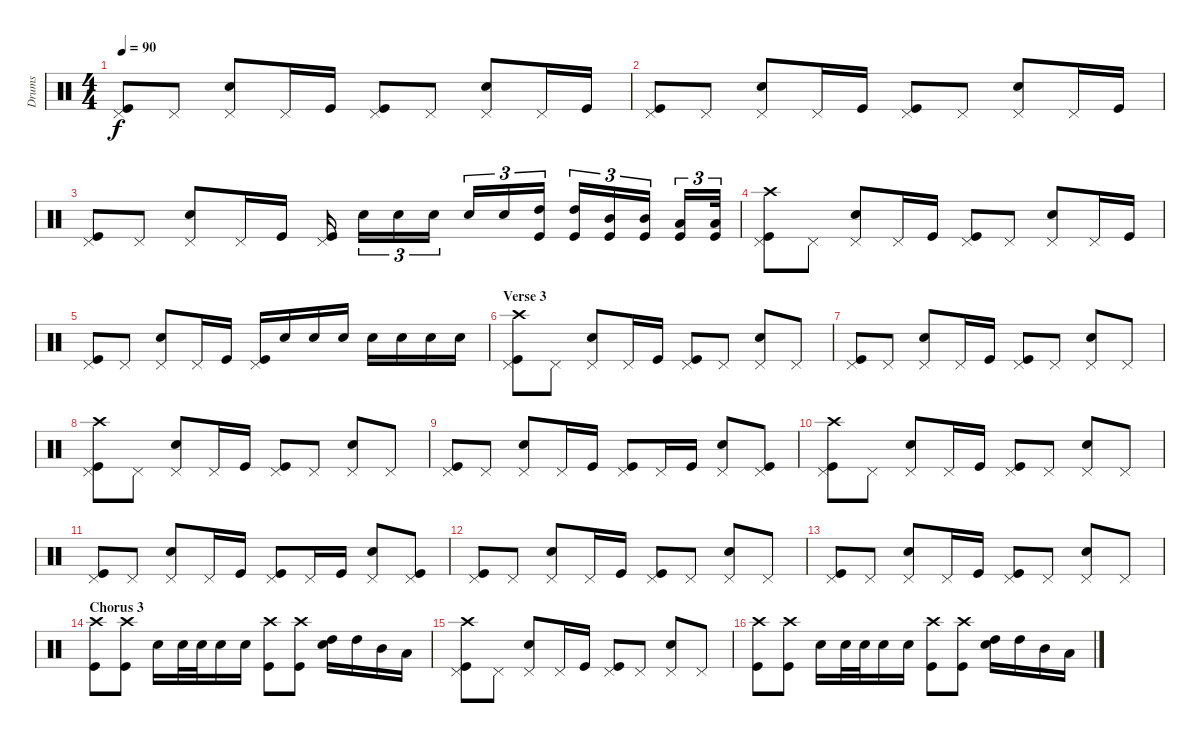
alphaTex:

\track ("Drums" "Drums") {instrument percussion}
\staff {score}
\articulation defaults
\ts (4 4)
\tempo 90
\clef neutral
\ks c
("Pedal Hi-Hat (hit)" "Kick (hit)").8{dy f} "Pedal Hi-Hat (hit)".8 ("Pedal Hi-Hat (hit)" "Snare (hit) 2").8 "Pedal Hi-Hat (hit)".16 "Kick (hit)".16 ("Pedal Hi-Hat (hit)" "Kick (hit)").8 "Pedal Hi-Hat (hit)".8 ("Pedal Hi-Hat (hit)" "Snare (hit) 2").8 "Pedal Hi-Hat (hit)".16 "Kick (hit)".16 |
("Pedal Hi-Hat (hit)" "Kick (hit)").8 "Pedal Hi-Hat (hit)".8 ("Pedal Hi-Hat (hit)" "Snare (hit) 2").8 "Pedal Hi-Hat (hit)".16 "Kick (hit)".16 ("Pedal Hi-Hat (hit)" "Kick (hit)").8 "Pedal Hi-Hat (hit)".8 ("Pedal Hi-Hat (hit)" "Snare (hit) 2").8 "Pedal Hi-Hat (hit)".16 "Kick (hit)".16 |
("Pedal Hi-Hat (hit)" "Kick (hit)").8 "Pedal Hi-Hat (hit)".8 ("Pedal Hi-Hat (hit)" "Snare (hit) 2").8 "Pedal Hi-Hat (hit)".16 "Kick (hit)".16 ("Pedal Hi-Hat (hit)" "Kick (hit)").16 "Snare (hit) 2".16{tu (3 2)} "Snare (hit) 2".16{tu (3 2)} "Snare (hit) 2".16{tu (3 2)} "Snare (hit) 2".16{tu (3 2)} "Snare (hit) 2".16{tu (3 2)} ("High Tom (hit)" "Kick (hit)").16{tu (3 2)} ("High Tom (hit)" "Kick (hit)").16{tu (3 2)} ("Mid Tom (hit)" "Kick (hit)").16{tu (3 2)} ("Mid Tom (hit)" "Kick (hit)").16{tu (3 2)} ("Low Tom (hit)" "Kick (hit)").16{tu (3 2)} ("Low Tom (hit)" "Kick (hit)").32{tu (3 2)} |
("Pedal Hi-Hat (hit)" "Kick (hit)" "Crash high (hit)").8 "Pedal Hi-Hat (hit)".8 ("Pedal Hi-Hat (hit)" "Snare (hit) 2").8 "Pedal Hi-Hat (hit)".16 "Kick (hit)".16 ("Pedal Hi-Hat (hit)" "Kick (hit)").8 "Pedal Hi-Hat (hit)".8 ("Pedal Hi-Hat (hit)" "Snare (hit) 2").8 "Pedal Hi-Hat (hit)".16 "Kick (hit)".16 |
("Pedal Hi-Hat (hit)" "Kick (hit)").8 "Pedal Hi-Hat (hit)".8 ("Pedal Hi-Hat (hit)" "Snare (hit) 2").8 "Pedal Hi-Hat (hit)".16 "Kick (hit)".16 ("Pedal Hi-Hat (hit)" "Kick (hit)").16 "Snare (hit) 2".16 "Snare (hit) 2".16 "Snare (hit) 2".16 "Snare (hit) 2".16 "Snare (hit) 2".16 "Snare (hit) 2".16 "Snare (hit) 2".16 |
\section ("" "Verse 3")
("Pedal Hi-Hat (hit)" "Kick (hit)" "Crash high (hit)").8 "Pedal Hi-Hat (hit)".8 ("Pedal Hi-Hat (hit)" "Snare (hit) 2").8 "Pedal Hi-Hat (hit)".16 "Kick (hit)".16 ("Pedal Hi-Hat (hit)" "Kick (hit)").8 "Pedal Hi-Hat (hit)".8 ("Pedal Hi-Hat (hit)" "Snare (hit) 2").8 "Pedal Hi-Hat (hit)".8 |
("Pedal Hi-Hat (hit)" "Kick (hit)").8 "Pedal Hi-Hat (hit)".8 ("Pedal Hi-Hat (hit)" "Snare (hit) 2").8 "Pedal Hi-Hat (hit)".16 "Kick (hit)".16 ("Pedal Hi-Hat (hit)" "Kick (hit)").8 "Pedal Hi-Hat (hit)".8 ("Pedal Hi-Hat (hit)" "Snare (hit) 2").8 "Pedal Hi-Hat (hit)".8 |
("Pedal Hi-Hat (hit)" "Kick (hit)" "Crash high (hit)").8 "Pedal Hi-Hat (hit)".8 ("Pedal Hi-Hat (hit)" "Snare (hit) 2").8 "Pedal Hi-Hat (hit)".16 "Kick (hit)".16 ("Pedal Hi-Hat (hit)" "Kick (hit)").8 "Pedal Hi-Hat (hit)".8 ("Pedal Hi-Hat (hit)" "Snare (hit) 2").8 "Pedal Hi-Hat (hit)".8 |
("Pedal Hi-Hat (hit)" "Kick (hit)").8 "Pedal Hi-Hat (hit)".8 ("Pedal Hi-Hat (hit)" "Snare (hit) 2").8 "Pedal Hi-Hat (hit)".16 "Kick (hit)".16 ("Pedal Hi-Hat (hit)" "Kick (hit)").8 "Pedal Hi-Hat (hit)".16 "Kick (hit)".16 ("Pedal Hi-Hat (hit)" "Snare (hit) 2").8 ("Pedal Hi-Hat (hit)" "Kick (hit)").8 |
("Pedal Hi-Hat (hit)" "Kick (hit)" "Crash high (hit)").8 "Pedal Hi-Hat (hit)".8 ("Pedal Hi-Hat (hit)" "Snare (hit) 2").8 "Pedal Hi-Hat (hit)".16 "Kick (hit)".16 ("Pedal Hi-Hat (hit)" "Kick (hit)").8 "Pedal Hi-Hat (hit)".8 ("Pedal Hi-Hat (hit)" "Snare (hit) 2").8 "Pedal Hi-Hat (hit)".8 |
("Pedal Hi-Hat (hit)" "Kick (hit)").8 "Pedal Hi-Hat (hit)".8 ("Pedal Hi-Hat (hit)" "Snare (hit) 2").8 "Pedal Hi-Hat (hit)".16 "Kick (hit)".16 ("Pedal Hi-Hat (hit)" "Kick (hit)").8 "Pedal Hi-Hat (hit)".16 "Kick (hit)".16 ("Pedal Hi-Hat (hit)" "Snare (hit) 2").8 ("Pedal Hi-Hat (hit)" "Kick (hit)").8 |
("Pedal Hi-Hat (hit)" "Kick (hit)").8 "Pedal Hi-Hat (hit)".8 ("Pedal Hi-Hat (hit)" "Snare (hit) 2").8 "Pedal Hi-Hat (hit)".16 "Kick (hit)".16 ("Pedal Hi-Hat (hit)" "Kick (hit)").8 "Pedal Hi-Hat (hit)".8 ("Pedal Hi-Hat (hit)" "Snare (hit) 2").8 "Pedal Hi-Hat (hit)".8 |
("Pedal Hi-Hat (hit)" "Kick (hit)").8 "Pedal Hi-Hat (hit)".8 ("Pedal Hi-Hat (hit)" "Snare (hit) 2").8 "Pedal Hi-Hat (hit)".16 "Kick (hit)".16 ("Pedal Hi-Hat (hit)" "Kick (hit)").8 "Pedal Hi-Hat (hit)".8 ("Pedal Hi-Hat (hit)" "Snare (hit) 2").8 "Pedal Hi-Hat (hit)".8 |
\section ("" "Chorus 3")
("Kick (hit)" "Crash high (hit)").8 ("Kick (hit)" "Crash high (hit)").8 "Snare (hit) 2".16 "Snare (hit) 2".32 "Snare (hit) 2".32 "Snare (hit) 2".16 "Snare (hit) 2".16 ("Kick (hit)" "Crash high (hit)").8 ("Kick (hit)" "Crash high (hit)").8 ("Snare (hit) 2" "High Tom (hit)").16 "High Tom (hit)".16 "Mid Tom (hit)".16 "Low Tom (hit)".16 |
("Pedal Hi-Hat (hit)" "Kick (hit)" "Crash high (hit)").8 "Pedal Hi-Hat (hit)".8 ("Pedal Hi-Hat (hit)" "Snare (hit) 2").8 "Pedal Hi-Hat (hit)".16 "Kick (hit)".16 ("Pedal Hi-Hat (hit)" "Kick (hit)").8 "Pedal Hi-Hat (hit)".8 ("Pedal Hi-Hat (hit)" "Snare (hit) 2").8 "Pedal Hi-Hat (hit)".8 |
("Kick (hit)" "Crash high (hit)").8 ("Kick (hit)" "Crash high (hit)").8 "Snare (hit) 2".16 "Snare (hit) 2".32 "Snare (hit) 2".32 "Snare (hit) 2".16 "Snare (hit) 2".16 ("Kick (hit)" "Crash high (hit)").8 ("Kick (hit)" "Crash high (hit)").8 ("Snare (hit) 2" "High Tom (hit)").16 "High Tom (hit)".16 "Mid Tom (hit)".16 "Low Tom (hit)".16
